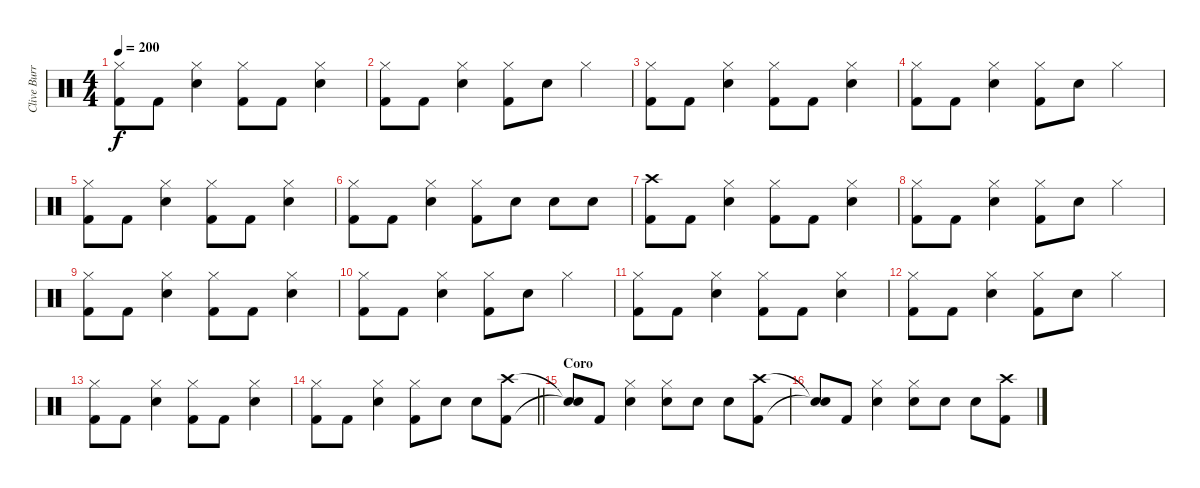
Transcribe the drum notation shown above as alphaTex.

\track ("Clive Burr" "Clive Burr") {instrument percussion}
\staff {score}
\articulation defaults
\ts (4 4)
\tempo 200
\clef neutral
\ks c
("Hi-Hat (closed)" "Kick (hit) 2").8{dy f} "Kick (hit) 2".8 ("Hi-Hat (closed)" "Snare (hit) 2").4 ("Hi-Hat (closed)" "Kick (hit) 2").8 "Kick (hit) 2".8 ("Hi-Hat (closed)" "Snare (hit) 2").4 |
("Hi-Hat (closed)" "Kick (hit) 2").8 "Kick (hit) 2".8 ("Hi-Hat (closed)" "Snare (hit) 2").4 ("Hi-Hat (closed)" "Kick (hit) 2").8 "Snare (hit) 2".8 "Hi-Hat (closed)".4 |
("Hi-Hat (closed)" "Kick (hit) 2").8 "Kick (hit) 2".8 ("Hi-Hat (closed)" "Snare (hit) 2").4 ("Hi-Hat (closed)" "Kick (hit) 2").8 "Kick (hit) 2".8 ("Hi-Hat (closed)" "Snare (hit) 2").4 |
("Hi-Hat (closed)" "Kick (hit) 2").8 "Kick (hit) 2".8 ("Hi-Hat (closed)" "Snare (hit) 2").4 ("Hi-Hat (closed)" "Kick (hit) 2").8 "Snare (hit) 2".8 "Hi-Hat (closed)".4 |
("Hi-Hat (closed)" "Kick (hit) 2").8 "Kick (hit) 2".8 ("Hi-Hat (closed)" "Snare (hit) 2").4 ("Hi-Hat (closed)" "Kick (hit) 2").8 "Kick (hit) 2".8 ("Hi-Hat (closed)" "Snare (hit) 2").4 |
("Hi-Hat (closed)" "Kick (hit) 2").8 "Kick (hit) 2".8 ("Hi-Hat (closed)" "Snare (hit) 2").4 ("Hi-Hat (closed)" "Kick (hit) 2").8 "Snare (hit) 2".8 "Snare (hit) 2".8 "Snare (hit) 2".8 |
("Crash high (hit)" "Kick (hit) 2").8 "Kick (hit) 2".8 ("Hi-Hat (closed)" "Snare (hit) 2").4 ("Hi-Hat (closed)" "Kick (hit) 2").8 "Kick (hit) 2".8 ("Hi-Hat (closed)" "Snare (hit) 2").4 |
("Hi-Hat (closed)" "Kick (hit) 2").8 "Kick (hit) 2".8 ("Hi-Hat (closed)" "Snare (hit) 2").4 ("Hi-Hat (closed)" "Kick (hit) 2").8 "Snare (hit) 2".8 "Hi-Hat (closed)".4 |
("Hi-Hat (closed)" "Kick (hit) 2").8 "Kick (hit) 2".8 ("Hi-Hat (closed)" "Snare (hit) 2").4 ("Hi-Hat (closed)" "Kick (hit) 2").8 "Kick (hit) 2".8 ("Hi-Hat (closed)" "Snare (hit) 2").4 |
("Hi-Hat (closed)" "Kick (hit) 2").8 "Kick (hit) 2".8 ("Hi-Hat (closed)" "Snare (hit) 2").4 ("Hi-Hat (closed)" "Kick (hit) 2").8 "Snare (hit) 2".8 "Hi-Hat (closed)".4 |
("Hi-Hat (closed)" "Kick (hit) 2").8 "Kick (hit) 2".8 ("Hi-Hat (closed)" "Snare (hit) 2").4 ("Hi-Hat (closed)" "Kick (hit) 2").8 "Kick (hit) 2".8 ("Hi-Hat (closed)" "Snare (hit) 2").4 |
("Hi-Hat (closed)" "Kick (hit) 2").8 "Kick (hit) 2".8 ("Hi-Hat (closed)" "Snare (hit) 2").4 ("Hi-Hat (closed)" "Kick (hit) 2").8 "Snare (hit) 2".8 "Hi-Hat (closed)".4 |
("Hi-Hat (closed)" "Kick (hit) 2").8 "Kick (hit) 2".8 ("Hi-Hat (closed)" "Snare (hit) 2").4 ("Hi-Hat (closed)" "Kick (hit) 2").8 "Kick (hit) 2".8 ("Hi-Hat (closed)" "Snare (hit) 2").4 |
\barLineRight lightlight
("Hi-Hat (closed)" "Kick (hit) 2").8 "Kick (hit) 2".8 ("Hi-Hat (closed)" "Snare (hit) 2").4 ("Hi-Hat (closed)" "Kick (hit) 2").8 "Snare (hit) 2".8 "Snare (hit) 2".8 ("Crash high (hit)" "Kick (hit) 2").8 |
\section ("" "Coro")
("Snare (hit)"{t} "Snare (hit)"{t}).8 "Kick (hit) 2".8 ("Hi-Hat (closed)" "Snare (hit) 2").4 ("Hi-Hat (closed)" "Snare (hit) 2").8 "Snare (hit) 2".8 "Snare (hit) 2".8 ("Crash high (hit)" "Kick (hit) 2").8 |
("Snare (hit)"{t} "Snare (hit)"{t}).8 "Kick (hit) 2".8 ("Hi-Hat (closed)" "Snare (hit) 2").4 ("Hi-Hat (closed)" "Snare (hit) 2").8 "Snare (hit) 2".8 "Snare (hit) 2".8 ("Crash high (hit)" "Kick (hit) 2").8
